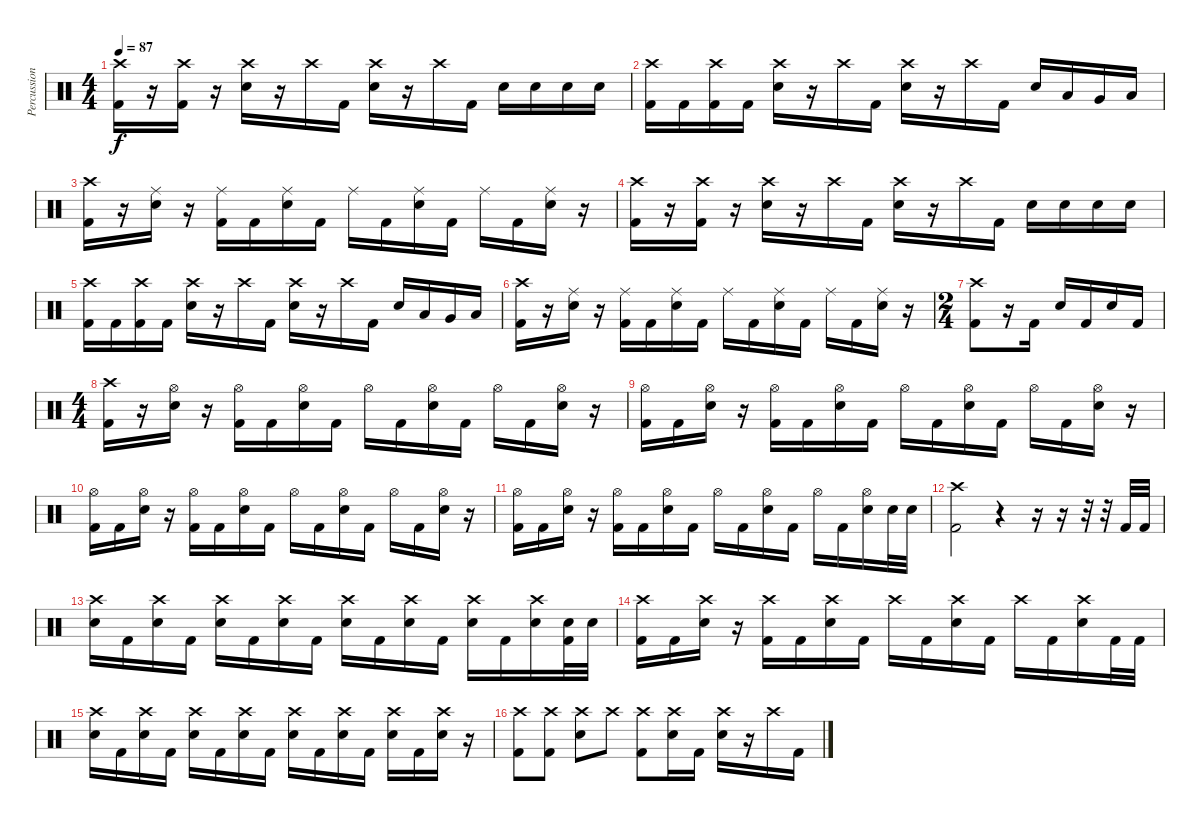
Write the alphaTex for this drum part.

\track ("Percussion" "Percussion") {instrument percussion}
\staff {score}
\articulation defaults
\ts (4 4)
\tempo 87
\clef neutral
\ks c
("Kick (hit) 2" "Crash high (hit)").16{dy f} r.16 ("Kick (hit) 2" "Crash high (hit)").16 r.16 ("Electric Snare (hit)" "Crash high (hit)").16 r.16 "Crash high (hit)".16 "Kick (hit) 2".16 ("Electric Snare (hit)" "Crash high (hit)").16 r.16 "Crash high (hit)".16 "Kick (hit) 2".16 "Electric Snare (hit)".16 "Electric Snare (hit)".16 "Electric Snare (hit)".16 "Electric Snare (hit)".16 |
("Kick (hit) 2" "Crash high (hit)").16 "Kick (hit) 2".16 ("Kick (hit) 2" "Crash high (hit)").16 "Kick (hit) 2".16 ("Electric Snare (hit)" "Crash high (hit)").16 r.16 "Crash high (hit)".16 "Kick (hit) 2".16 ("Electric Snare (hit)" "Crash high (hit)").16 r.16 "Crash high (hit)".16 "Kick (hit) 2".16 "Electric Snare (hit)".16 "Low Tom (hit)".16 "Very Low Tom (hit)".16 "Low Floor Tom (hit)".16 |
("Kick (hit) 2" "Crash high (hit)").16 r.16 ("Electric Snare (hit)" "Ride (middle)").16 r.16 ("Kick (hit) 2" "Ride (middle)").16 "Kick (hit) 2".16 ("Electric Snare (hit)" "Ride (middle)").16 "Kick (hit) 2".16 "Ride (middle)".16 "Kick (hit) 2".16 ("Electric Snare (hit)" "Ride (middle)").16 "Kick (hit) 2".16 "Ride (middle)".16 "Kick (hit) 2".16 ("Electric Snare (hit)" "Ride (middle)").16 r.16 |
("Kick (hit) 2" "Crash high (hit)").16 r.16 ("Kick (hit) 2" "Crash high (hit)").16 r.16 ("Electric Snare (hit)" "Crash high (hit)").16 r.16 "Crash high (hit)".16 "Kick (hit) 2".16 ("Electric Snare (hit)" "Crash high (hit)").16 r.16 "Crash high (hit)".16 "Kick (hit) 2".16 "Electric Snare (hit)".16 "Electric Snare (hit)".16 "Electric Snare (hit)".16 "Electric Snare (hit)".16 |
("Kick (hit) 2" "Crash high (hit)").16 "Kick (hit) 2".16 ("Kick (hit) 2" "Crash high (hit)").16 "Kick (hit) 2".16 ("Electric Snare (hit)" "Crash high (hit)").16 r.16 "Crash high (hit)".16 "Kick (hit) 2".16 ("Electric Snare (hit)" "Crash high (hit)").16 r.16 "Crash high (hit)".16 "Kick (hit) 2".16 "Electric Snare (hit)".16 "Low Tom (hit)".16 "Very Low Tom (hit)".16 "Low Floor Tom (hit)".16 |
("Kick (hit) 2" "Crash high (hit)").16 r.16 ("Electric Snare (hit)" "Ride (middle)").16 r.16 ("Kick (hit) 2" "Ride (middle)").16 "Kick (hit) 2".16 ("Electric Snare (hit)" "Ride (middle)").16 "Kick (hit) 2".16 "Ride (middle)".16 "Kick (hit) 2".16 ("Electric Snare (hit)" "Ride (middle)").16 "Kick (hit) 2".16 "Ride (middle)".16 "Kick (hit) 2".16 ("Electric Snare (hit)" "Ride (middle)").16 r.16 |
\ts (2 4)
("Kick (hit) 2" "Crash high (hit)").8 r.16 "Kick (hit) 2".16 "Electric Snare (hit)".16 "Kick (hit) 2".16 "Electric Snare (hit)".16 "Kick (hit) 2".16 |
\ts (4 4)
("Kick (hit) 2" "Crash high (hit)").16 r.16 ("Electric Snare (hit)" "Hi-Hat (open)").16 r.16 ("Kick (hit) 2" "Hi-Hat (open)").16 "Kick (hit) 2".16 ("Electric Snare (hit)" "Hi-Hat (open)").16 "Kick (hit) 2".16 "Hi-Hat (open)".16 "Kick (hit) 2".16 ("Electric Snare (hit)" "Hi-Hat (open)").16 "Kick (hit) 2".16 "Hi-Hat (open)".16 "Kick (hit) 2".16 ("Electric Snare (hit)" "Hi-Hat (open)").16 r.16 |
("Kick (hit) 2" "Hi-Hat (open)").16 "Kick (hit) 2".16 ("Electric Snare (hit)" "Hi-Hat (open)").16 r.16 ("Kick (hit) 2" "Hi-Hat (open)").16 "Kick (hit) 2".16 ("Electric Snare (hit)" "Hi-Hat (open)").16 "Kick (hit) 2".16 "Hi-Hat (open)".16 "Kick (hit) 2".16 ("Electric Snare (hit)" "Hi-Hat (open)").16 "Kick (hit) 2".16 "Hi-Hat (open)".16 "Kick (hit) 2".16 ("Electric Snare (hit)" "Hi-Hat (open)").16 r.16 |
("Kick (hit) 2" "Hi-Hat (open)").16 "Kick (hit) 2".16 ("Electric Snare (hit)" "Hi-Hat (open)").16 r.16 ("Kick (hit) 2" "Hi-Hat (open)").16 "Kick (hit) 2".16 ("Electric Snare (hit)" "Hi-Hat (open)").16 "Kick (hit) 2".16 "Hi-Hat (open)".16 "Kick (hit) 2".16 ("Electric Snare (hit)" "Hi-Hat (open)").16 "Kick (hit) 2".16 "Hi-Hat (open)".16 "Kick (hit) 2".16 ("Electric Snare (hit)" "Hi-Hat (open)").16 r.16 |
("Kick (hit) 2" "Hi-Hat (open)").16 "Kick (hit) 2".16 ("Electric Snare (hit)" "Hi-Hat (open)").16 r.16 ("Kick (hit) 2" "Hi-Hat (open)").16 "Kick (hit) 2".16 ("Electric Snare (hit)" "Hi-Hat (open)").16 "Kick (hit) 2".16 "Hi-Hat (open)".16 "Kick (hit) 2".16 ("Electric Snare (hit)" "Hi-Hat (open)").16 "Kick (hit) 2".16 "Hi-Hat (open)".16 "Kick (hit) 2".16 ("Electric Snare (hit)" "Hi-Hat (open)").16 "Electric Snare (hit)".32 "Electric Snare (hit)".32 |
("Kick (hit) 2" "Crash high (hit)").2 r.4 r.16 r.16 r.32 r.32 "Kick (hit) 2".32 "Kick (hit) 2".32 |
("Electric Snare (hit)" "Crash high (hit)").16 "Kick (hit) 2".16 ("Electric Snare (hit)" "Crash high (hit)").16 "Kick (hit) 2".16 ("Electric Snare (hit)" "Crash high (hit)").16 "Kick (hit) 2".16 ("Electric Snare (hit)" "Crash high (hit)").16 "Kick (hit) 2".16 ("Electric Snare (hit)" "Crash high (hit)").16 "Kick (hit) 2".16 ("Electric Snare (hit)" "Crash high (hit)").16 "Kick (hit) 2".16 ("Electric Snare (hit)" "Crash high (hit)").16 "Kick (hit) 2".16 ("Electric Snare (hit)" "Crash high (hit)").16 ("Kick (hit) 2" "Electric Snare (hit)").32 "Electric Snare (hit)".32 |
("Kick (hit) 2" "Crash high (hit)").16 "Kick (hit) 2".16 ("Electric Snare (hit)" "Crash high (hit)").16 r.16 ("Kick (hit) 2" "Crash high (hit)").16 "Kick (hit) 2".16 ("Electric Snare (hit)" "Crash high (hit)").16 "Kick (hit) 2".16 "Crash high (hit)".16 "Kick (hit) 2".16 ("Electric Snare (hit)" "Crash high (hit)").16 "Kick (hit) 2".16 "Crash high (hit)".16 "Kick (hit) 2".16 ("Electric Snare (hit)" "Crash high (hit)").16 "Kick (hit) 2".32 "Kick (hit) 2".32 |
("Electric Snare (hit)" "Crash high (hit)").16 "Kick (hit) 2".16 ("Electric Snare (hit)" "Crash high (hit)").16 "Kick (hit) 2".16 ("Electric Snare (hit)" "Crash high (hit)").16 "Kick (hit) 2".16 ("Electric Snare (hit)" "Crash high (hit)").16 "Kick (hit) 2".16 ("Electric Snare (hit)" "Crash high (hit)").16 "Kick (hit) 2".16 ("Electric Snare (hit)" "Crash high (hit)").16 "Kick (hit) 2".16 ("Electric Snare (hit)" "Crash high (hit)").16 "Kick (hit) 2".16 ("Electric Snare (hit)" "Crash high (hit)").16 r.16 |
("Kick (hit) 2" "Crash high (hit)").8 ("Kick (hit) 2" "Crash high (hit)").8 ("Electric Snare (hit)" "Crash high (hit)").8 "Crash high (hit)".8 ("Kick (hit) 2" "Crash high (hit)").8 ("Electric Snare (hit)" "Crash high (hit)").16 "Kick (hit) 2".16 ("Electric Snare (hit)" "Crash high (hit)").16 r.16 "Crash high (hit)".16 "Kick (hit) 2".16
